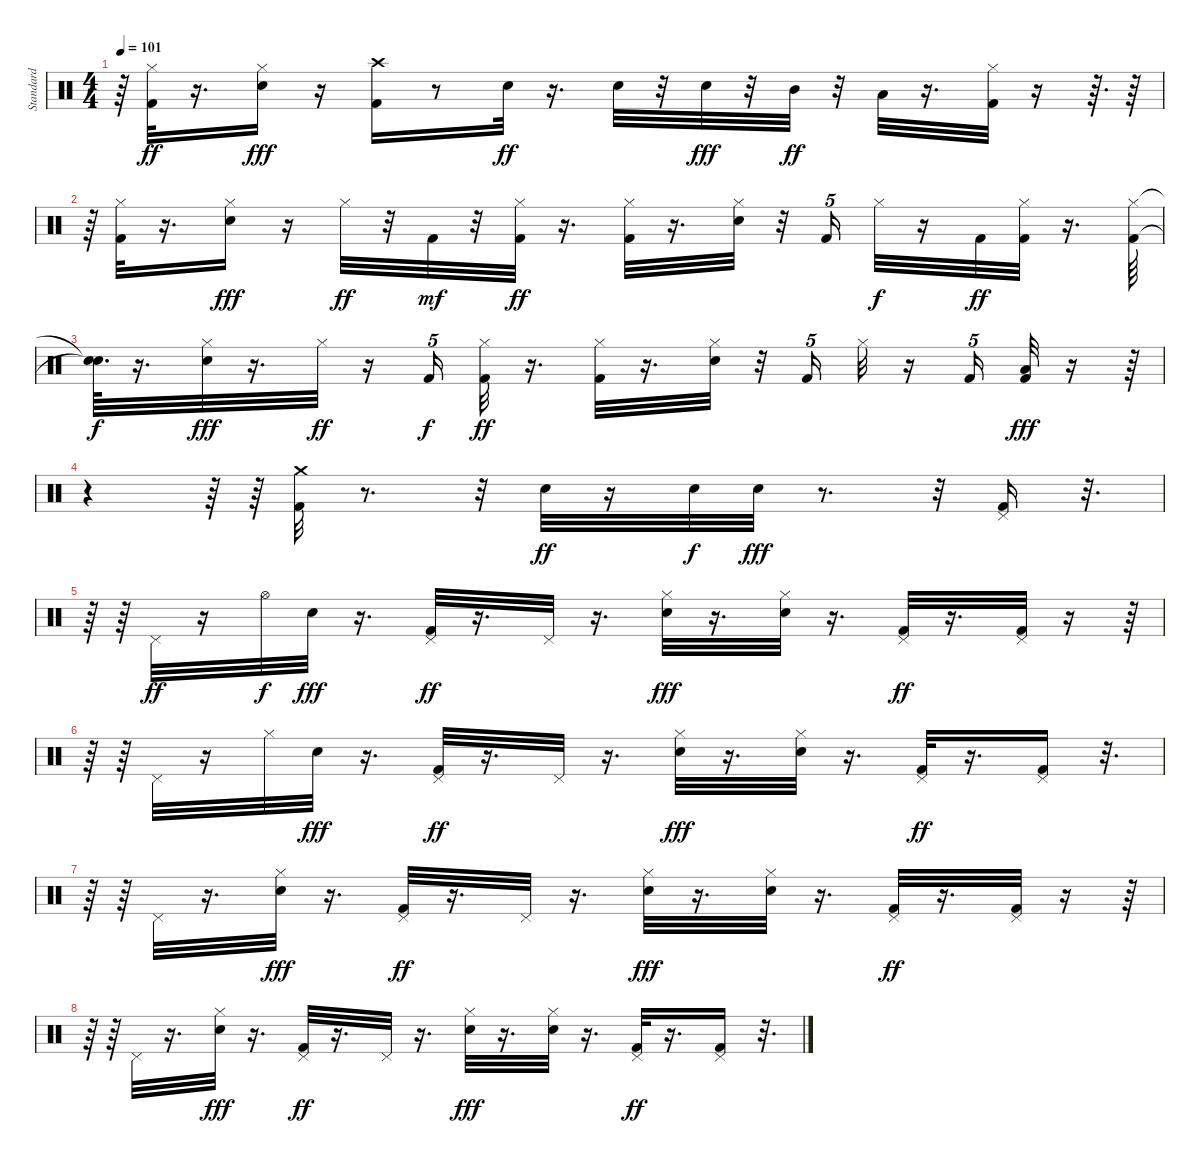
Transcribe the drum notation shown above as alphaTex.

\track (" Standard" " Standard") {instrument percussion}
\staff {score}
\articulation defaults
\ts (4 4)
\tempo 101
\clef neutral
\ks c
r.64{dy fff} ("Kick (hit) 2" "Hi-Hat (closed)").32{dy ff} r.16{d} ("Hi-Hat (closed)" "Electric Snare (hit)").16{dy fff} r.16 ("Crash high (hit)" "Kick (hit) 2").16 r.8 "Electric Snare (hit)".32{dy ff} r.16{d} "Electric Snare (hit)".32 r.32 "Electric Snare (hit)".32{dy fff} r.32 "Mid Tom (hit)".32{dy ff} r.32 "Low Tom (hit)".32 r.16{d} ("Hi-Hat (closed)" "Kick (hit) 2").32 r.16 r.64{d} r.64 |
r.64 ("Hi-Hat (closed)" "Kick (hit) 2").32 r.16{d} ("Hi-Hat (closed)" "Electric Snare (hit)").16{dy fff} r.16 "Hi-Hat (closed)".32{dy ff} r.32 "Kick (hit) 2".32{dy mf} r.32 ("Hi-Hat (closed)" "Kick (hit) 2").32{dy ff} r.16{d} ("Hi-Hat (closed)" "Kick (hit) 2").32 r.16{d} ("Electric Snare (hit)" "Hi-Hat (closed)").32 r.32 "Kick (hit) 2".16{tu (5 4)} "Hi-Hat (closed)".32{dy f} r.16 "Kick (hit) 2".32{dy ff} ("Hi-Hat (closed)" "Kick (hit) 2").32 r.16{d} ("Hi-Hat (closed)" "Kick (hit) 2").64 |
("Snare (hit)"{t} "Snare (hit)"{t}).64{d dy f} r.16{d} ("Hi-Hat (closed)" "Electric Snare (hit)").32{dy fff} r.16{d} "Hi-Hat (closed)".32{dy ff} r.16 "Kick (hit) 2".16{tu (5 4) dy f} ("Hi-Hat (closed)" "Kick (hit) 2").32{dy ff} r.16{d} ("Hi-Hat (closed)" "Kick (hit) 2").32 r.16{d} ("Electric Snare (hit)" "Hi-Hat (closed)").32 r.32 "Kick (hit) 2".16{tu (5 4)} "Hi-Hat (closed)".32 r.16 "Kick (hit) 2".16{tu (5 4)} ("Kick (hit) 2" "Low Tom (hit)").32{dy fff} r.16 r.64 |
r.4 r.64 r.64 ("Crash medium (hit)" "Kick (hit) 2").32 r.8{d} r.32 "Electric Snare (hit)".32{dy ff} r.16 "Electric Snare (hit)".32{dy f} "Electric Snare (hit)".32{dy fff} r.8{d} r.32 ("Pedal Hi-Hat (hit)" "Kick (hit) 2").16 r.32{d} |
r.64 r.64 "Pedal Hi-Hat (hit)".32{dy ff} r.16 "Hi-Hat (open)".32{dy f} "Electric Snare (hit)".32{dy fff} r.16{d} ("Kick (hit) 2" "Pedal Hi-Hat (hit)").32{dy ff} r.16{d} "Pedal Hi-Hat (hit)".32 r.16{d} ("Electric Snare (hit)" "Hi-Hat (closed)").32{dy fff} r.16{d} ("Electric Snare (hit)" "Hi-Hat (closed)").32 r.16{d} ("Kick (hit) 2" "Pedal Hi-Hat (hit)").32{dy ff} r.16{d} ("Kick (hit) 2" "Pedal Hi-Hat (hit)").32 r.16 r.64 |
r.64 r.64 "Pedal Hi-Hat (hit)".32 r.16 "Hi-Hat (closed)".32 "Electric Snare (hit)".32{dy fff} r.16{d} ("Kick (hit) 2" "Pedal Hi-Hat (hit)").32{dy ff} r.16{d} "Pedal Hi-Hat (hit)".32 r.16{d} ("Hi-Hat (closed)" "Electric Snare (hit)").32{dy fff} r.16{d} ("Electric Snare (hit)" "Hi-Hat (closed)").32 r.16{d} ("Kick (hit) 2" "Pedal Hi-Hat (hit)").32{dy ff} r.16{d} ("Kick (hit) 2" "Pedal Hi-Hat (hit)").16 r.32{d} |
r.64 r.64 "Pedal Hi-Hat (hit)".32 r.16{d} ("Hi-Hat (closed)" "Electric Snare (hit)").32{dy fff} r.16{d} ("Kick (hit) 2" "Pedal Hi-Hat (hit)").32{dy ff} r.16{d} "Pedal Hi-Hat (hit)".32 r.16{d} ("Electric Snare (hit)" "Hi-Hat (closed)").32{dy fff} r.16{d} ("Electric Snare (hit)" "Hi-Hat (closed)").32 r.16{d} ("Kick (hit) 2" "Pedal Hi-Hat (hit)").32{dy ff} r.16{d} ("Kick (hit) 2" "Pedal Hi-Hat (hit)").32 r.16 r.64 |
r.64 r.64 "Pedal Hi-Hat (hit)".32 r.16{d} ("Electric Snare (hit)" "Hi-Hat (closed)").32{dy fff} r.16{d} ("Kick (hit) 2" "Pedal Hi-Hat (hit)").32{dy ff} r.16{d} "Pedal Hi-Hat (hit)".32 r.16{d} ("Hi-Hat (closed)" "Electric Snare (hit)").32{dy fff} r.16{d} ("Electric Snare (hit)" "Hi-Hat (closed)").32 r.16{d} ("Kick (hit) 2" "Pedal Hi-Hat (hit)").32{dy ff} r.16{d} ("Kick (hit) 2" "Pedal Hi-Hat (hit)").16 r.32{d}
